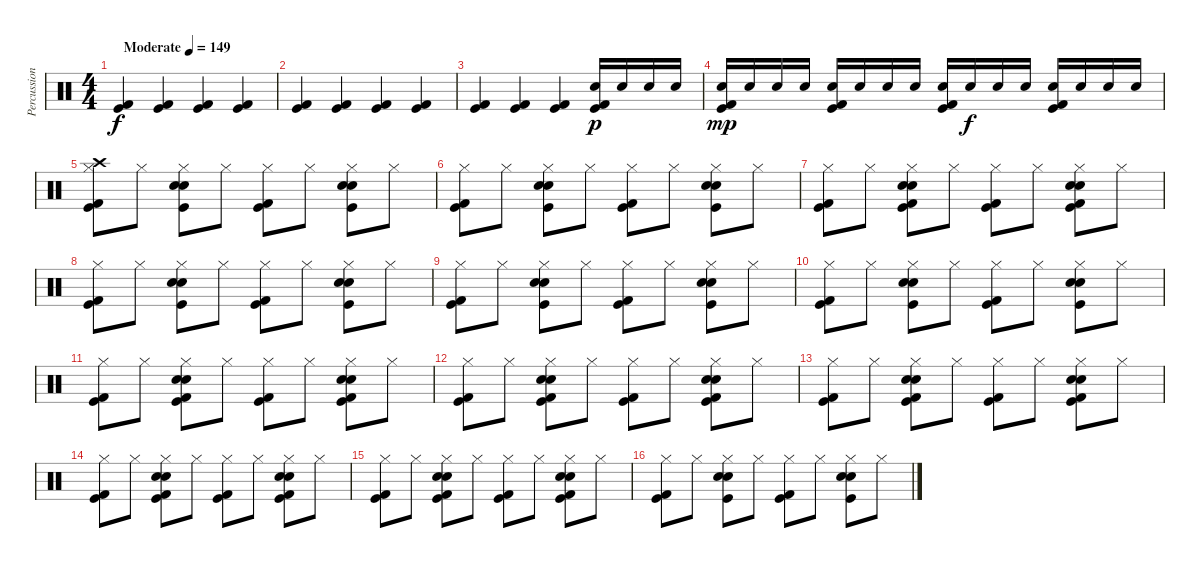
\track ("Percussion" "Percussion") {instrument percussion}
\staff {score}
\articulation defaults
\ts (4 4)
\tempo (149 "Moderate")
\clef neutral
\ks c
("Kick (hit)" "Kick (hit) 2").4{dy f} ("Kick (hit)" "Kick (hit) 2").4 ("Kick (hit)" "Kick (hit) 2").4 ("Kick (hit)" "Kick (hit) 2").4 |
("Kick (hit)" "Kick (hit) 2").4 ("Kick (hit)" "Kick (hit) 2").4 ("Kick (hit)" "Kick (hit) 2").4 ("Kick (hit)" "Kick (hit) 2").4 |
("Kick (hit)" "Kick (hit) 2").4 ("Kick (hit)" "Kick (hit) 2").4 ("Kick (hit)" "Kick (hit) 2").4 ("Snare (hit) 2" "Kick (hit)" "Kick (hit) 2").16{dy p} "Snare (hit) 2".16 "Snare (hit) 2".16 "Snare (hit) 2".16 |
("Snare (hit) 2" "Kick (hit)" "Kick (hit) 2").16{dy mp} "Snare (hit) 2".16 "Snare (hit) 2".16 "Snare (hit) 2".16 ("Snare (hit) 2" "Kick (hit)" "Kick (hit) 2").16 "Snare (hit) 2".16 "Snare (hit) 2".16 "Snare (hit) 2".16 ("Snare (hit) 2" "Kick (hit)" "Kick (hit) 2").16 "Snare (hit) 2".16{dy f} "Snare (hit) 2".16 "Snare (hit) 2".16 ("Snare (hit) 2" "Kick (hit)" "Kick (hit) 2").16 "Snare (hit) 2".16 "Snare (hit) 2".16 "Snare (hit) 2".16 |
("Crash high (hit)" "Hi-Hat (closed)" "Kick (hit)" "Kick (hit) 2").8 "Hi-Hat (closed)".8 ("Hand Clap (hit)" "Electric Snare (hit)" "Hi-Hat (closed)" "Kick (hit)").8 "Hi-Hat (closed)".8 ("Hi-Hat (closed)" "Kick (hit)" "Kick (hit) 2").8 "Hi-Hat (closed)".8 ("Hand Clap (hit)" "Electric Snare (hit)" "Hi-Hat (closed)" "Kick (hit)").8 "Hi-Hat (closed)".8 |
("Hi-Hat (closed)" "Kick (hit)" "Kick (hit) 2").8 "Hi-Hat (closed)".8 ("Hand Clap (hit)" "Electric Snare (hit)" "Hi-Hat (closed)" "Kick (hit)").8 "Hi-Hat (closed)".8 ("Hi-Hat (closed)" "Kick (hit)" "Kick (hit) 2").8 "Hi-Hat (closed)".8 ("Hand Clap (hit)" "Electric Snare (hit)" "Hi-Hat (closed)" "Kick (hit)").8 "Hi-Hat (closed)".8 |
("Hi-Hat (closed)" "Kick (hit)" "Kick (hit) 2").8 "Hi-Hat (closed)".8 ("Hand Clap (hit)" "Electric Snare (hit)" "Hi-Hat (closed)" "Kick (hit)" "Kick (hit) 2").8 "Hi-Hat (closed)".8 ("Hi-Hat (closed)" "Kick (hit)" "Kick (hit) 2").8 "Hi-Hat (closed)".8 ("Hand Clap (hit)" "Electric Snare (hit)" "Hi-Hat (closed)" "Kick (hit)" "Kick (hit) 2").8 "Hi-Hat (closed)".8 |
("Hi-Hat (closed)" "Kick (hit)" "Kick (hit) 2").8 "Hi-Hat (closed)".8 ("Hand Clap (hit)" "Electric Snare (hit)" "Hi-Hat (closed)" "Kick (hit)").8 "Hi-Hat (closed)".8 ("Hi-Hat (closed)" "Kick (hit)" "Kick (hit) 2").8 "Hi-Hat (closed)".8 ("Hand Clap (hit)" "Electric Snare (hit)" "Hi-Hat (closed)" "Kick (hit)").8 "Hi-Hat (closed)".8 |
("Hi-Hat (closed)" "Kick (hit)" "Kick (hit) 2").8 "Hi-Hat (closed)".8 ("Hand Clap (hit)" "Electric Snare (hit)" "Hi-Hat (closed)" "Kick (hit)").8 "Hi-Hat (closed)".8 ("Hi-Hat (closed)" "Kick (hit)" "Kick (hit) 2").8 "Hi-Hat (closed)".8 ("Hand Clap (hit)" "Electric Snare (hit)" "Hi-Hat (closed)" "Kick (hit)").8 "Hi-Hat (closed)".8 |
("Hi-Hat (closed)" "Kick (hit)" "Kick (hit) 2").8 "Hi-Hat (closed)".8 ("Hand Clap (hit)" "Electric Snare (hit)" "Hi-Hat (closed)" "Kick (hit)").8 "Hi-Hat (closed)".8 ("Hi-Hat (closed)" "Kick (hit)" "Kick (hit) 2").8 "Hi-Hat (closed)".8 ("Hand Clap (hit)" "Electric Snare (hit)" "Hi-Hat (closed)" "Kick (hit)").8 "Hi-Hat (closed)".8 |
("Hi-Hat (closed)" "Kick (hit)" "Kick (hit) 2").8 "Hi-Hat (closed)".8 ("Hand Clap (hit)" "Electric Snare (hit)" "Hi-Hat (closed)" "Kick (hit)" "Kick (hit) 2").8 "Hi-Hat (closed)".8 ("Hi-Hat (closed)" "Kick (hit)" "Kick (hit) 2").8 "Hi-Hat (closed)".8 ("Hand Clap (hit)" "Electric Snare (hit)" "Hi-Hat (closed)" "Kick (hit)" "Kick (hit) 2").8 "Hi-Hat (closed)".8 |
("Hi-Hat (closed)" "Kick (hit)" "Kick (hit) 2").8 "Hi-Hat (closed)".8 ("Hand Clap (hit)" "Electric Snare (hit)" "Hi-Hat (closed)" "Kick (hit)" "Kick (hit) 2").8 "Hi-Hat (closed)".8 ("Hi-Hat (closed)" "Kick (hit)" "Kick (hit) 2").8 "Hi-Hat (closed)".8 ("Hand Clap (hit)" "Electric Snare (hit)" "Hi-Hat (closed)" "Kick (hit)" "Kick (hit) 2").8 "Hi-Hat (closed)".8 |
("Hi-Hat (closed)" "Kick (hit)" "Kick (hit) 2").8 "Hi-Hat (closed)".8 ("Hand Clap (hit)" "Snare (hit) 2" "Hi-Hat (closed)" "Kick (hit)" "Kick (hit) 2").8 "Hi-Hat (closed)".8 ("Hi-Hat (closed)" "Kick (hit)" "Kick (hit) 2").8 "Hi-Hat (closed)".8 ("Hand Clap (hit)" "Snare (hit) 2" "Hi-Hat (closed)" "Kick (hit)" "Kick (hit) 2").8 "Hi-Hat (closed)".8 |
("Hi-Hat (closed)" "Kick (hit)" "Kick (hit) 2").8 "Hi-Hat (closed)".8 ("Hand Clap (hit)" "Snare (hit) 2" "Hi-Hat (closed)" "Kick (hit)" "Kick (hit) 2").8 "Hi-Hat (closed)".8 ("Hi-Hat (closed)" "Kick (hit)" "Kick (hit) 2").8 "Hi-Hat (closed)".8 ("Hand Clap (hit)" "Snare (hit) 2" "Hi-Hat (closed)" "Kick (hit)" "Kick (hit) 2").8 "Hi-Hat (closed)".8 |
("Hi-Hat (closed)" "Kick (hit)" "Kick (hit) 2").8 "Hi-Hat (closed)".8 ("Hand Clap (hit)" "Snare (hit) 2" "Hi-Hat (closed)" "Kick (hit)" "Kick (hit) 2").8 "Hi-Hat (closed)".8 ("Hi-Hat (closed)" "Kick (hit)" "Kick (hit) 2").8 "Hi-Hat (closed)".8 ("Hand Clap (hit)" "Snare (hit) 2" "Hi-Hat (closed)" "Kick (hit)" "Kick (hit) 2").8 "Hi-Hat (closed)".8 |
("Hi-Hat (closed)" "Kick (hit)" "Kick (hit) 2").8 "Hi-Hat (closed)".8 ("Hand Clap (hit)" "Snare (hit) 2" "Hi-Hat (closed)" "Kick (hit)").8 "Hi-Hat (closed)".8 ("Hi-Hat (closed)" "Kick (hit)" "Kick (hit) 2").8 "Hi-Hat (closed)".8 ("Hand Clap (hit)" "Snare (hit) 2" "Hi-Hat (closed)" "Kick (hit)").8 "Hi-Hat (closed)".8
